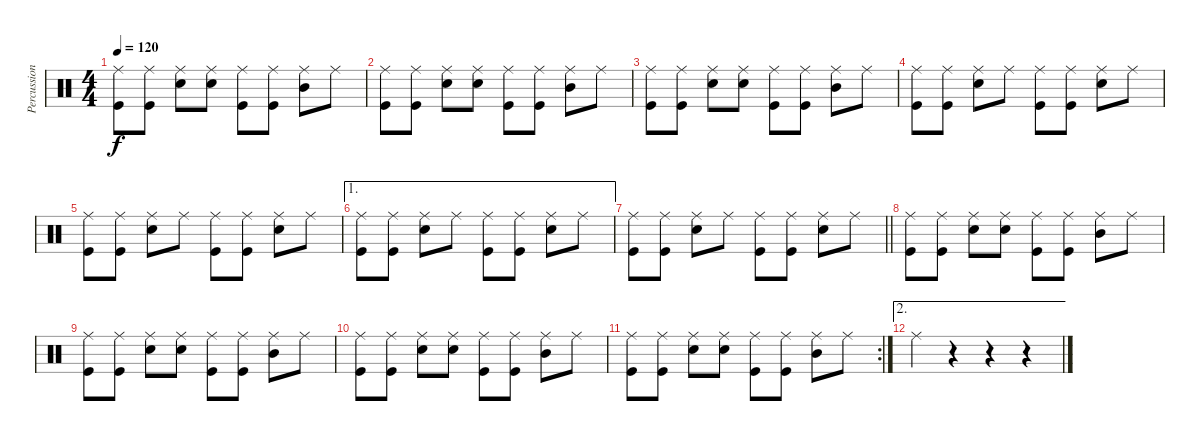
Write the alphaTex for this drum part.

\track ("Percussion" "Percussion") {instrument percussion}
\staff {score}
\articulation defaults
\ts (4 4)
\tempo 120
\clef neutral
\ks c
("Ride (middle)" "Kick (hit)").8{dy f} ("Ride (middle)" "Kick (hit)").8 ("Ride (middle)" "Electric Snare (hit)").8 ("Ride (middle)" "Electric Snare (hit)").8 ("Ride (middle)" "Kick (hit)").8 ("Ride (middle)" "Kick (hit)").8 ("Ride (middle)" "Mid Tom (hit)").8 "Ride (middle)".8 |
("Ride (middle)" "Kick (hit)").8 ("Ride (middle)" "Kick (hit)").8 ("Ride (middle)" "Electric Snare (hit)").8 ("Ride (middle)" "Electric Snare (hit)").8 ("Ride (middle)" "Kick (hit)").8 ("Ride (middle)" "Kick (hit)").8 ("Ride (middle)" "Mid Tom (hit)").8 "Ride (middle)".8 |
("Ride (middle)" "Kick (hit)").8 ("Ride (middle)" "Kick (hit)").8 ("Ride (middle)" "Electric Snare (hit)").8 ("Ride (middle)" "Electric Snare (hit)").8 ("Ride (middle)" "Kick (hit)").8 ("Ride (middle)" "Kick (hit)").8 ("Ride (middle)" "Mid Tom (hit)").8 "Ride (middle)".8 |
("Ride (middle)" "Kick (hit)").8 ("Ride (middle)" "Kick (hit)").8 ("Ride (middle)" "Electric Snare (hit)").8 "Ride (middle)".8 ("Ride (middle)" "Kick (hit)").8 ("Ride (middle)" "Kick (hit)").8 ("Ride (middle)" "Electric Snare (hit)").8 "Ride (middle)".8 |
("Ride (middle)" "Kick (hit)").8 ("Ride (middle)" "Kick (hit)").8 ("Ride (middle)" "Electric Snare (hit)").8 "Ride (middle)".8 ("Ride (middle)" "Kick (hit)").8 ("Ride (middle)" "Kick (hit)").8 ("Ride (middle)" "Electric Snare (hit)").8 "Ride (middle)".8 |
\ae 1
("Ride (middle)" "Kick (hit)").8 ("Ride (middle)" "Kick (hit)").8 ("Ride (middle)" "Electric Snare (hit)").8 "Ride (middle)".8 ("Ride (middle)" "Kick (hit)").8 ("Ride (middle)" "Kick (hit)").8 ("Ride (middle)" "Electric Snare (hit)").8 "Ride (middle)".8 |
\barLineRight lightlight
("Ride (middle)" "Kick (hit)").8 ("Ride (middle)" "Kick (hit)").8 ("Ride (middle)" "Electric Snare (hit)").8 "Ride (middle)".8 ("Ride (middle)" "Kick (hit)").8 ("Ride (middle)" "Kick (hit)").8 ("Ride (middle)" "Electric Snare (hit)").8 "Ride (middle)".8 |
\section ("" " ")
("Ride (middle)" "Kick (hit)").8 ("Ride (middle)" "Kick (hit)").8 ("Ride (middle)" "Electric Snare (hit)").8 ("Ride (middle)" "Electric Snare (hit)").8 ("Ride (middle)" "Kick (hit)").8 ("Ride (middle)" "Kick (hit)").8 ("Ride (middle)" "Mid Tom (hit)").8 "Ride (middle)".8 |
("Ride (middle)" "Kick (hit)").8 ("Ride (middle)" "Kick (hit)").8 ("Ride (middle)" "Electric Snare (hit)").8 ("Ride (middle)" "Electric Snare (hit)").8 ("Ride (middle)" "Kick (hit)").8 ("Ride (middle)" "Kick (hit)").8 ("Ride (middle)" "Mid Tom (hit)").8 "Ride (middle)".8 |
("Ride (middle)" "Kick (hit)").8 ("Ride (middle)" "Kick (hit)").8 ("Ride (middle)" "Electric Snare (hit)").8 ("Ride (middle)" "Electric Snare (hit)").8 ("Ride (middle)" "Kick (hit)").8 ("Ride (middle)" "Kick (hit)").8 ("Ride (middle)" "Mid Tom (hit)").8 "Ride (middle)".8 |
\rc 2
("Ride (middle)" "Kick (hit)").8 ("Ride (middle)" "Kick (hit)").8 ("Ride (middle)" "Electric Snare (hit)").8 ("Ride (middle)" "Electric Snare (hit)").8 ("Ride (middle)" "Kick (hit)").8 ("Ride (middle)" "Kick (hit)").8 ("Ride (middle)" "Mid Tom (hit)").8 "Ride (middle)".8 |
\ae 2 "Ride (middle)".4
r.4 r.4 r.4
